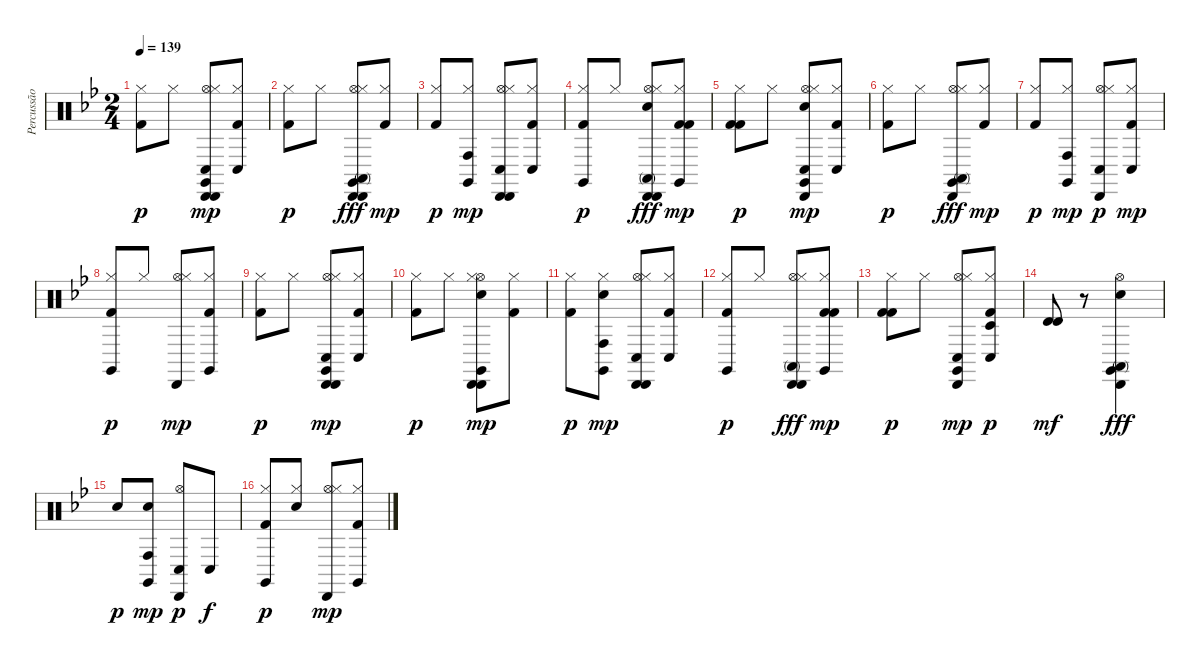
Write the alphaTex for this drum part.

\track ("Percussão" "Percussão") {instrument percussion}
\staff {score}
\articulation defaults
\ts (2 4)
\tempo 139
\clef neutral
\ks bb
("Kick (hit) 2" "Hi-Hat (closed)").8{dy p} "Hi-Hat (closed)".8 ("Hi-Hat (open)" "Hi-Hat (closed)" "Claves (hit)" "Conga low (hit)" "Cabasa (hit)" "Cabasa (hit)").8{dy mp} ("Hi-Hat (closed)" "Conga low (hit)" "Kick (hit) 2").8 |
("Kick (hit) 2" "Hi-Hat (closed)").8{dy p} "Hi-Hat (closed)".8 ("Hi-Hat (open)" "Hi-Hat (closed)" "Claves (hit)" "Cabasa (hit)" "Cabasa (hit)" "Conga high (mute)").8{dy fff} ("Hi-Hat (closed)" "Kick (hit) 2").8{dy mp} |
("Kick (hit) 2" "Hi-Hat (closed)").8{dy p} ("Hi-Hat (closed)" "Claves (hit)" "Conga high (hit)").8{dy mp} ("Hi-Hat (open)" "Hi-Hat (closed)" "Conga low (hit)" "Cabasa (hit)" "Cabasa (hit)").8 ("Hi-Hat (closed)" "Conga low (hit)" "Kick (hit) 2").8 |
("Kick (hit) 2" "Claves (hit)" "Hi-Hat (closed)").8{dy p} "Hi-Hat (closed)".8 ("Hi-Hat (open)" "Hi-Hat (closed)" "Electric Snare (hit)" "Cabasa (hit)" "Cabasa (hit)" "Conga high (mute)").8{dy fff} ("Hi-Hat (closed)" "Claves (hit)" "Kick (hit) 2" "Kick (hit) 2").8{dy mp} |
("Kick (hit) 2" "Kick (hit) 2" "Hi-Hat (closed)").8{dy p} "Hi-Hat (closed)".8 ("Hi-Hat (open)" "Hi-Hat (closed)" "Claves (hit)" "Conga low (hit)" "Electric Snare (hit)" "Cabasa (hit)").8{dy mp} ("Hi-Hat (closed)" "Conga low (hit)" "Kick (hit) 2").8 |
("Kick (hit) 2" "Hi-Hat (closed)").8{dy p} "Hi-Hat (closed)".8 ("Hi-Hat (open)" "Hi-Hat (closed)" "Claves (hit)" "Cabasa (hit)" "Conga high (mute)").8{dy fff} ("Hi-Hat (closed)" "Kick (hit) 2").8{dy mp} |
("Kick (hit) 2" "Hi-Hat (closed)").8{dy p} ("Hi-Hat (closed)" "Claves (hit)" "Conga high (hit)").8{dy mp} ("Hi-Hat (open)" "Hi-Hat (closed)" "Conga low (hit)" "Cabasa (hit)").8{dy p} ("Hi-Hat (closed)" "Conga low (hit)" "Kick (hit) 2").8{dy mp} |
("Kick (hit) 2" "Claves (hit)" "Hi-Hat (closed)").8{dy p} "Hi-Hat (closed)".8 ("Hi-Hat (open)" "Hi-Hat (closed)" "Cabasa (hit)").8{dy mp} ("Hi-Hat (closed)" "Claves (hit)" "Kick (hit) 2").8 |
("Kick (hit) 2" "Hi-Hat (closed)").8{dy p} "Hi-Hat (closed)".8 ("Hi-Hat (open)" "Hi-Hat (closed)" "Claves (hit)" "Conga low (hit)" "Cabasa (hit)" "Cabasa (hit)").8{dy mp} ("Hi-Hat (closed)" "Conga low (hit)" "Kick (hit) 2").8 |
("Kick (hit) 2" "Hi-Hat (closed)").8{dy p} "Hi-Hat (closed)".8 ("Hi-Hat (open)" "Hi-Hat (closed)" "Claves (hit)" "Electric Snare (hit)" "Cabasa (hit)" "Cabasa (hit)").8{dy mp} ("Hi-Hat (closed)" "Kick (hit) 2").8 |
("Kick (hit) 2" "Hi-Hat (closed)").8{dy p} ("Hi-Hat (closed)" "Claves (hit)" "Electric Snare (hit)" "Conga high (hit)").8{dy mp} ("Hi-Hat (open)" "Hi-Hat (closed)" "Conga low (hit)" "Cabasa (hit)" "Cabasa (hit)").8 ("Hi-Hat (closed)" "Conga low (hit)" "Kick (hit) 2").8 |
("Kick (hit) 2" "Claves (hit)" "Hi-Hat (closed)").8{dy p} "Hi-Hat (closed)".8 ("Hi-Hat (open)" "Hi-Hat (closed)" "Cabasa (hit)" "Cabasa (hit)" "Conga high (mute)").8{dy fff} ("Hi-Hat (closed)" "Claves (hit)" "Kick (hit) 2" "Kick (hit) 2").8{dy mp} |
("Kick (hit) 2" "Kick (hit) 2" "Hi-Hat (closed)").8{dy p} "Hi-Hat (closed)".8 ("Hi-Hat (open)" "Hi-Hat (closed)" "Claves (hit)" "Conga low (hit)" "Cabasa (hit)").8{dy mp} ("Hi-Hat (closed)" "Conga low (hit)" "Kick (hit) 2" "Timbale low (hit)").8{dy p} |
("Timbale high (hit)" "Timbale high (hit)").8{dy mf} r.8 ("Hi-Hat (open)" "Claves (hit)" "Electric Snare (hit)" "Cabasa (hit)" "Conga high (mute)").4{dy fff} |
"Snare (hit)".8{dy p} ("Claves (hit)" "Electric Snare (hit)" "Conga high (hit)").8{dy mp} ("Hi-Hat (open)" "Conga low (hit)" "Cabasa (hit)").8{dy p} "Conga low (hit)".8{dy f} |
("Kick (hit) 2" "Claves (hit)" "Hi-Hat (closed)").8{dy p} ("Electric Snare (hit)" "Hi-Hat (closed)").8 ("Hi-Hat (open)" "Hi-Hat (closed)" "Cabasa (hit)").8{dy mp} ("Hi-Hat (closed)" "Claves (hit)" "Kick (hit) 2").8
